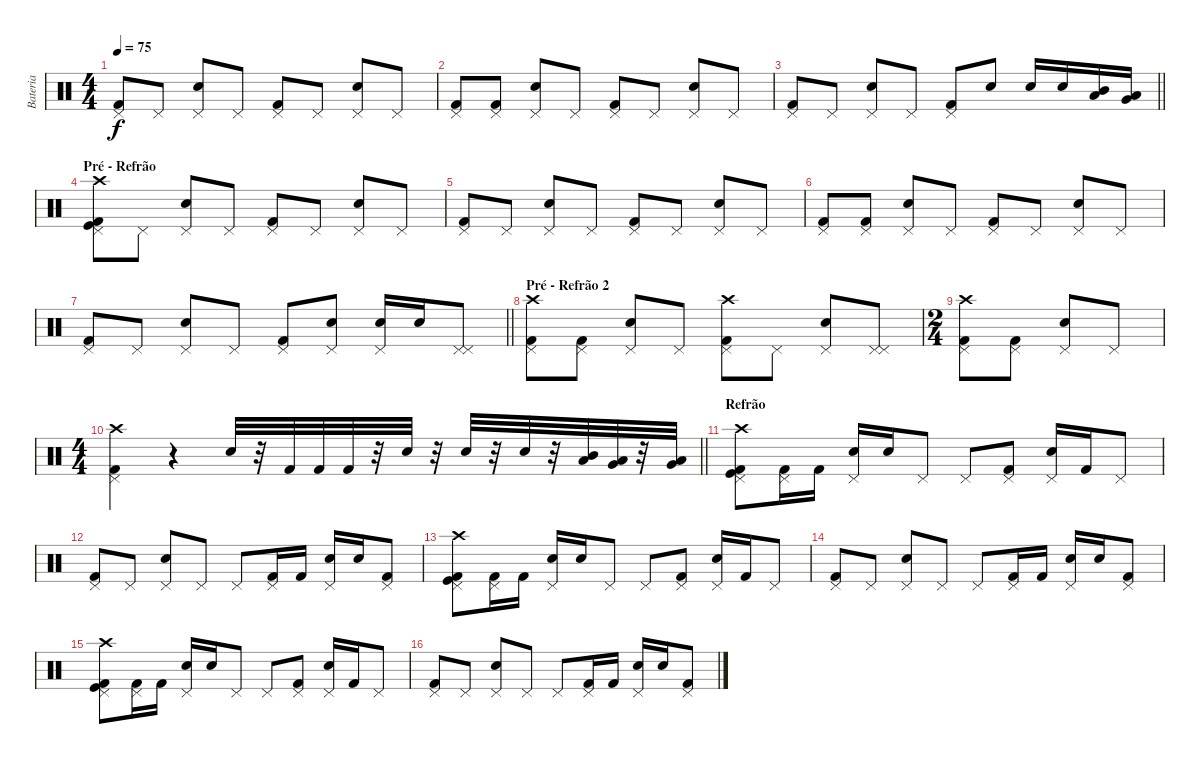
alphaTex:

\track ("Bateria" "Bateria") {instrument percussion}
\staff {score}
\articulation defaults
\ts (4 4)
\tempo 75
\clef neutral
\ks c
("Pedal Hi-Hat (hit)" "Kick (hit) 2").8{dy f} "Pedal Hi-Hat (hit)".8 ("Snare (hit) 2" "Pedal Hi-Hat (hit)").8 "Pedal Hi-Hat (hit)".8 ("Pedal Hi-Hat (hit)" "Kick (hit) 2").8 "Pedal Hi-Hat (hit)".8 ("Pedal Hi-Hat (hit)" "Snare (hit) 2").8 "Pedal Hi-Hat (hit)".8 |
("Pedal Hi-Hat (hit)" "Kick (hit) 2").8 ("Kick (hit) 2" "Pedal Hi-Hat (hit)").8 ("Pedal Hi-Hat (hit)" "Snare (hit) 2").8 "Pedal Hi-Hat (hit)".8 ("Kick (hit) 2" "Pedal Hi-Hat (hit)").8 "Pedal Hi-Hat (hit)".8 ("Pedal Hi-Hat (hit)" "Snare (hit) 2").8 "Pedal Hi-Hat (hit)".8 |
\barLineRight lightlight
("Pedal Hi-Hat (hit)" "Kick (hit) 2").8 "Pedal Hi-Hat (hit)".8 ("Pedal Hi-Hat (hit)" "Snare (hit) 2").8 "Pedal Hi-Hat (hit)".8 ("Pedal Hi-Hat (hit)" "Kick (hit) 2").8 "Snare (hit) 2".8 "Snare (hit) 2".16 "Snare (hit) 2".16 ("Mid Tom (hit)" "Low Tom (hit)").16 ("Very Low Tom (hit)" "Low Floor Tom (hit)").16 |
\section ("" "Pré - Refrão")
("Kick (hit)" "Crash high (hit)" "Kick (hit) 2" "Pedal Hi-Hat (hit)").8 "Pedal Hi-Hat (hit)".8 ("Snare (hit) 2" "Pedal Hi-Hat (hit)").8 "Pedal Hi-Hat (hit)".8 ("Kick (hit) 2" "Pedal Hi-Hat (hit)").8 "Pedal Hi-Hat (hit)".8 ("Pedal Hi-Hat (hit)" "Snare (hit) 2").8 "Pedal Hi-Hat (hit)".8 |
("Pedal Hi-Hat (hit)" "Kick (hit) 2").8 "Pedal Hi-Hat (hit)".8 ("Snare (hit) 2" "Pedal Hi-Hat (hit)").8 "Pedal Hi-Hat (hit)".8 ("Pedal Hi-Hat (hit)" "Kick (hit) 2").8 "Pedal Hi-Hat (hit)".8 ("Pedal Hi-Hat (hit)" "Snare (hit) 2").8 "Pedal Hi-Hat (hit)".8 |
("Pedal Hi-Hat (hit)" "Kick (hit) 2").8 ("Kick (hit) 2" "Pedal Hi-Hat (hit)").8 ("Pedal Hi-Hat (hit)" "Snare (hit) 2").8 "Pedal Hi-Hat (hit)".8 ("Kick (hit) 2" "Pedal Hi-Hat (hit)").8 "Pedal Hi-Hat (hit)".8 ("Pedal Hi-Hat (hit)" "Snare (hit) 2").8 "Pedal Hi-Hat (hit)".8 |
\barLineRight lightlight
("Pedal Hi-Hat (hit)" "Kick (hit) 2").8 "Pedal Hi-Hat (hit)".8 ("Pedal Hi-Hat (hit)" "Snare (hit) 2").8 "Pedal Hi-Hat (hit)".8 ("Pedal Hi-Hat (hit)" "Kick (hit) 2").8 ("Pedal Hi-Hat (hit)" "Snare (hit) 2").8 ("Pedal Hi-Hat (hit)" "Snare (hit) 2").16 "Snare (hit) 2".16 ("Pedal Hi-Hat (hit)" "Pedal Hi-Hat (hit)").8 |
\section ("" "Pré - Refrão 2")
("Crash high (hit)" "Pedal Hi-Hat (hit)" "Kick (hit) 2").8 ("Kick (hit) 2" "Pedal Hi-Hat (hit)").8 ("Pedal Hi-Hat (hit)" "Snare (hit) 2").8 "Pedal Hi-Hat (hit)".8 ("Crash high (hit)" "Kick (hit) 2" "Pedal Hi-Hat (hit)").8 "Pedal Hi-Hat (hit)".8 ("Pedal Hi-Hat (hit)" "Snare (hit) 2").8 ("Pedal Hi-Hat (hit)" "Pedal Hi-Hat (hit)").8 |
\ts (2 4)
("Crash high (hit)" "Pedal Hi-Hat (hit)" "Kick (hit) 2").8 ("Kick (hit) 2" "Pedal Hi-Hat (hit)").8 ("Pedal Hi-Hat (hit)" "Snare (hit) 2").8 "Pedal Hi-Hat (hit)".8 |
\ts (4 4)
\barLineRight lightlight
("Crash high (hit)" "Kick (hit) 2" "Pedal Hi-Hat (hit)").4 r.4 "Snare (hit) 2".32 r.32 "Kick (hit) 2".32 "Kick (hit) 2".32 "Kick (hit) 2".32 r.32 "Snare (hit) 2".32 r.32 "Snare (hit) 2".32 r.32 "Snare (hit) 2".32 r.32 ("Low Tom (hit)" "Mid Tom (hit)").32 ("Very Low Tom (hit)" "Low Tom (hit)").32 r.32 ("Very Low Tom (hit)" "Low Tom (hit)").32 |
\section ("" "Refrão")
("Kick (hit)" "Crash high (hit)" "Kick (hit) 2" "Pedal Hi-Hat (hit)").8 ("Kick (hit) 2" "Pedal Hi-Hat (hit)").16 "Kick (hit) 2".16 ("Snare (hit) 2" "Pedal Hi-Hat (hit)").16 "Snare (hit) 2".16 "Pedal Hi-Hat (hit)".8 "Pedal Hi-Hat (hit)".8 ("Pedal Hi-Hat (hit)" "Kick (hit) 2").8 ("Pedal Hi-Hat (hit)" "Snare (hit) 2").16 "Kick (hit) 2".16 "Pedal Hi-Hat (hit)".8 |
("Pedal Hi-Hat (hit)" "Kick (hit) 2").8 "Pedal Hi-Hat (hit)".8 ("Snare (hit) 2" "Pedal Hi-Hat (hit)").8 "Pedal Hi-Hat (hit)".8 "Pedal Hi-Hat (hit)".8 ("Pedal Hi-Hat (hit)" "Kick (hit) 2").16 "Kick (hit) 2".16 ("Pedal Hi-Hat (hit)" "Snare (hit) 2").16 "Snare (hit) 2".16 ("Kick (hit) 2" "Pedal Hi-Hat (hit)").8 |
("Crash high (hit)" "Kick (hit) 2" "Pedal Hi-Hat (hit)" "Kick (hit)").8 ("Kick (hit) 2" "Pedal Hi-Hat (hit)").16 "Kick (hit) 2".16 ("Snare (hit) 2" "Pedal Hi-Hat (hit)").16 "Snare (hit) 2".16 "Pedal Hi-Hat (hit)".8 "Pedal Hi-Hat (hit)".8 ("Kick (hit) 2" "Pedal Hi-Hat (hit)").8 ("Pedal Hi-Hat (hit)" "Snare (hit) 2").16 "Kick (hit) 2".16 "Pedal Hi-Hat (hit)".8 |
("Kick (hit) 2" "Pedal Hi-Hat (hit)").8 "Pedal Hi-Hat (hit)".8 ("Pedal Hi-Hat (hit)" "Snare (hit) 2").8 "Pedal Hi-Hat (hit)".8 "Pedal Hi-Hat (hit)".8 ("Pedal Hi-Hat (hit)" "Kick (hit) 2").16 "Kick (hit) 2".16 ("Pedal Hi-Hat (hit)" "Snare (hit) 2").16 "Snare (hit) 2".16 ("Pedal Hi-Hat (hit)" "Kick (hit) 2").8 |
("Crash high (hit)" "Kick (hit)" "Kick (hit) 2" "Pedal Hi-Hat (hit)").8 ("Kick (hit) 2" "Pedal Hi-Hat (hit)").16 "Kick (hit) 2".16 ("Snare (hit) 2" "Pedal Hi-Hat (hit)").16 "Snare (hit) 2".16 "Pedal Hi-Hat (hit)".8 "Pedal Hi-Hat (hit)".8 ("Pedal Hi-Hat (hit)" "Kick (hit) 2").8 ("Pedal Hi-Hat (hit)" "Snare (hit) 2").16 "Kick (hit) 2".16 "Pedal Hi-Hat (hit)".8 |
("Kick (hit) 2" "Pedal Hi-Hat (hit)").8 "Pedal Hi-Hat (hit)".8 ("Pedal Hi-Hat (hit)" "Snare (hit) 2").8 "Pedal Hi-Hat (hit)".8 "Pedal Hi-Hat (hit)".8 ("Pedal Hi-Hat (hit)" "Kick (hit) 2").16 "Kick (hit) 2".16 ("Pedal Hi-Hat (hit)" "Snare (hit) 2").16 "Snare (hit) 2".16 ("Kick (hit) 2" "Pedal Hi-Hat (hit)").8
